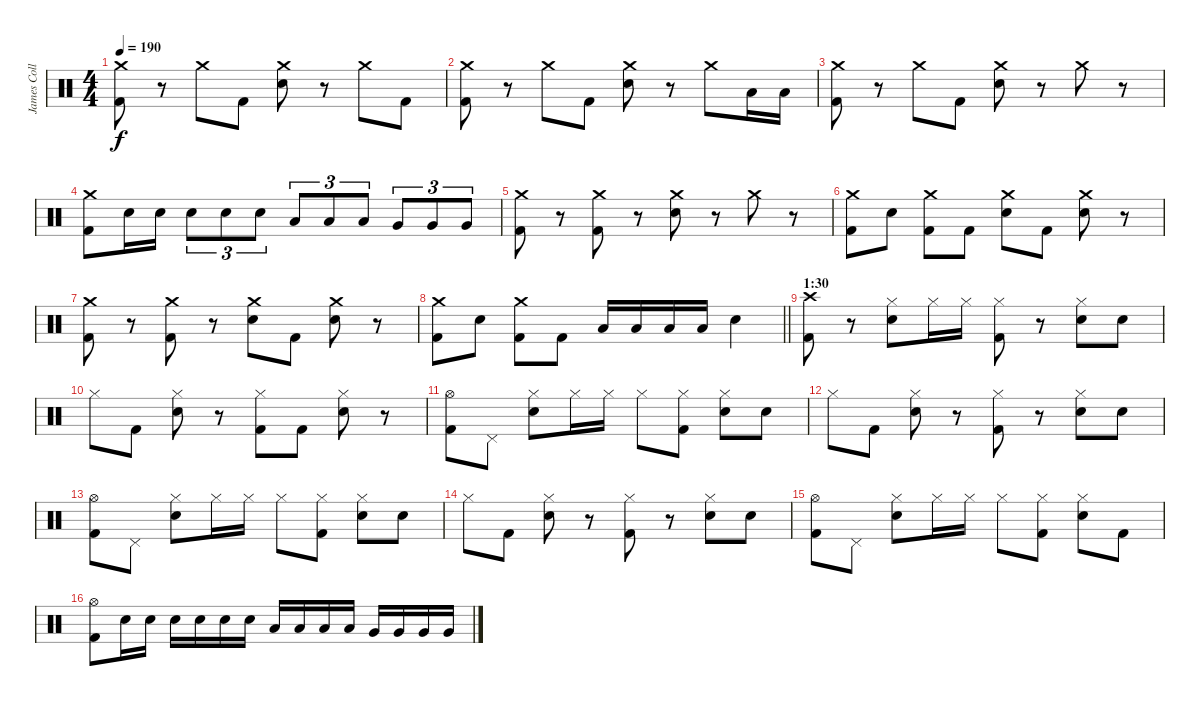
\track ("James Collins" "James Coll") {instrument percussion}
\staff {score}
\articulation defaults
\ts (4 4)
\tempo 190
\clef neutral
\ks c
("Crash medium (hit)" "Kick (hit) 2").8{dy f} r.8 "Crash medium (hit)".8 "Kick (hit) 2".8 ("Crash medium (hit)" "Electric Snare (hit)").8 r.8 "Crash medium (hit)".8 "Kick (hit) 2".8 |
("Crash medium (hit)" "Kick (hit) 2").8 r.8 "Crash medium (hit)".8 "Kick (hit) 2".8 ("Crash medium (hit)" "Electric Snare (hit)").8 r.8 "Crash medium (hit)".8 "Low Tom (hit)".16 "Low Tom (hit)".16 |
("Crash medium (hit)" "Kick (hit) 2").8 r.8 "Crash medium (hit)".8 "Kick (hit) 2".8 ("Crash medium (hit)" "Electric Snare (hit)").8 r.8 "Crash medium (hit)".8 r.8 |
("Crash medium (hit)" "Kick (hit) 2").8 "Electric Snare (hit)".16 "Electric Snare (hit)".16 "Electric Snare (hit)".8{tu (3 2)} "Electric Snare (hit)".8{tu (3 2)} "Electric Snare (hit)".8{tu (3 2)} "Low Tom (hit)".8{tu (3 2)} "Low Tom (hit)".8{tu (3 2)} "Low Tom (hit)".8{tu (3 2)} "Very Low Tom (hit)".8{tu (3 2)} "Very Low Tom (hit)".8{tu (3 2)} "Very Low Tom (hit)".8{tu (3 2)} |
("Crash medium (hit)" "Kick (hit) 2").8 r.8 ("Crash medium (hit)" "Kick (hit) 2").8 r.8 ("Crash medium (hit)" "Electric Snare (hit)").8 r.8 "Crash medium (hit)".8 r.8 |
("Crash medium (hit)" "Kick (hit) 2").8 "Electric Snare (hit)".8 ("Crash medium (hit)" "Kick (hit) 2").8 "Kick (hit) 2".8 ("Crash medium (hit)" "Electric Snare (hit)").8 "Kick (hit) 2".8 ("Crash medium (hit)" "Electric Snare (hit)").8 r.8 |
("Crash medium (hit)" "Kick (hit) 2").8 r.8 ("Crash medium (hit)" "Kick (hit) 2").8 r.8 ("Crash medium (hit)" "Electric Snare (hit)").8 "Kick (hit) 2".8 ("Crash medium (hit)" "Electric Snare (hit)").8 r.8 |
\barLineRight lightlight
("Crash medium (hit)" "Kick (hit) 2").8 "Electric Snare (hit)".8 ("Crash medium (hit)" "Kick (hit) 2").8 "Kick (hit) 2".8 "Low Floor Tom (hit)".16 "Low Floor Tom (hit)".16 "Low Floor Tom (hit)".16 "Low Floor Tom (hit)".16 "Electric Snare (hit)".4 |
\section ("" "1:30")
("Crash high (hit)" "Kick (hit) 2").8 r.8 ("Hi-Hat (closed)" "Electric Snare (hit)").8 "Hi-Hat (closed)".16 "Hi-Hat (closed)".16 ("Hi-Hat (closed)" "Kick (hit) 2").8 r.8 ("Hi-Hat (closed)" "Electric Snare (hit)").8 "Electric Snare (hit)".8 |
"Hi-Hat (closed)".8 "Kick (hit) 2".8 ("Hi-Hat (closed)" "Electric Snare (hit)").8 r.8 ("Hi-Hat (closed)" "Kick (hit) 2").8 "Kick (hit) 2".8 ("Hi-Hat (closed)" "Electric Snare (hit)").8 r.8 |
("Hi-Hat (open)" "Kick (hit) 2").8 "Pedal Hi-Hat (hit)".8 ("Hi-Hat (closed)" "Electric Snare (hit)").8 "Hi-Hat (closed)".16 "Hi-Hat (closed)".16 "Hi-Hat (closed)".8 ("Hi-Hat (closed)" "Kick (hit) 2").8 ("Hi-Hat (closed)" "Electric Snare (hit)").8 "Electric Snare (hit)".8 |
"Hi-Hat (closed)".8 "Kick (hit) 2".8 ("Hi-Hat (closed)" "Electric Snare (hit)").8 r.8 ("Hi-Hat (closed)" "Kick (hit) 2").8 r.8 ("Hi-Hat (closed)" "Electric Snare (hit)").8 "Electric Snare (hit)".8 |
("Hi-Hat (open)" "Kick (hit) 2").8 "Pedal Hi-Hat (hit)".8 ("Hi-Hat (closed)" "Electric Snare (hit)").8 "Hi-Hat (closed)".16 "Hi-Hat (closed)".16 "Hi-Hat (closed)".8 ("Hi-Hat (closed)" "Kick (hit) 2").8 ("Hi-Hat (closed)" "Electric Snare (hit)").8 "Electric Snare (hit)".8 |
"Hi-Hat (closed)".8 "Kick (hit) 2".8 ("Hi-Hat (closed)" "Electric Snare (hit)").8 r.8 ("Hi-Hat (closed)" "Kick (hit) 2").8 r.8 ("Hi-Hat (closed)" "Electric Snare (hit)").8 "Electric Snare (hit)".8 |
("Hi-Hat (open)" "Kick (hit) 2").8 "Pedal Hi-Hat (hit)".8 ("Hi-Hat (closed)" "Electric Snare (hit)").8 "Hi-Hat (closed)".16 "Hi-Hat (closed)".16 "Hi-Hat (closed)".8 ("Hi-Hat (closed)" "Kick (hit) 2").8 ("Hi-Hat (closed)" "Electric Snare (hit)").8 "Kick (hit) 2".8 |
("Hi-Hat (open)" "Kick (hit) 2").8 "Electric Snare (hit)".16 "Electric Snare (hit)".16 "Electric Snare (hit)".16 "Electric Snare (hit)".16 "Electric Snare (hit)".16 "Electric Snare (hit)".16 "Low Tom (hit)".16 "Low Tom (hit)".16 "Low Tom (hit)".16 "Low Tom (hit)".16 "Very Low Tom (hit)".16 "Very Low Tom (hit)".16 "Very Low Tom (hit)".16 "Very Low Tom (hit)".16
